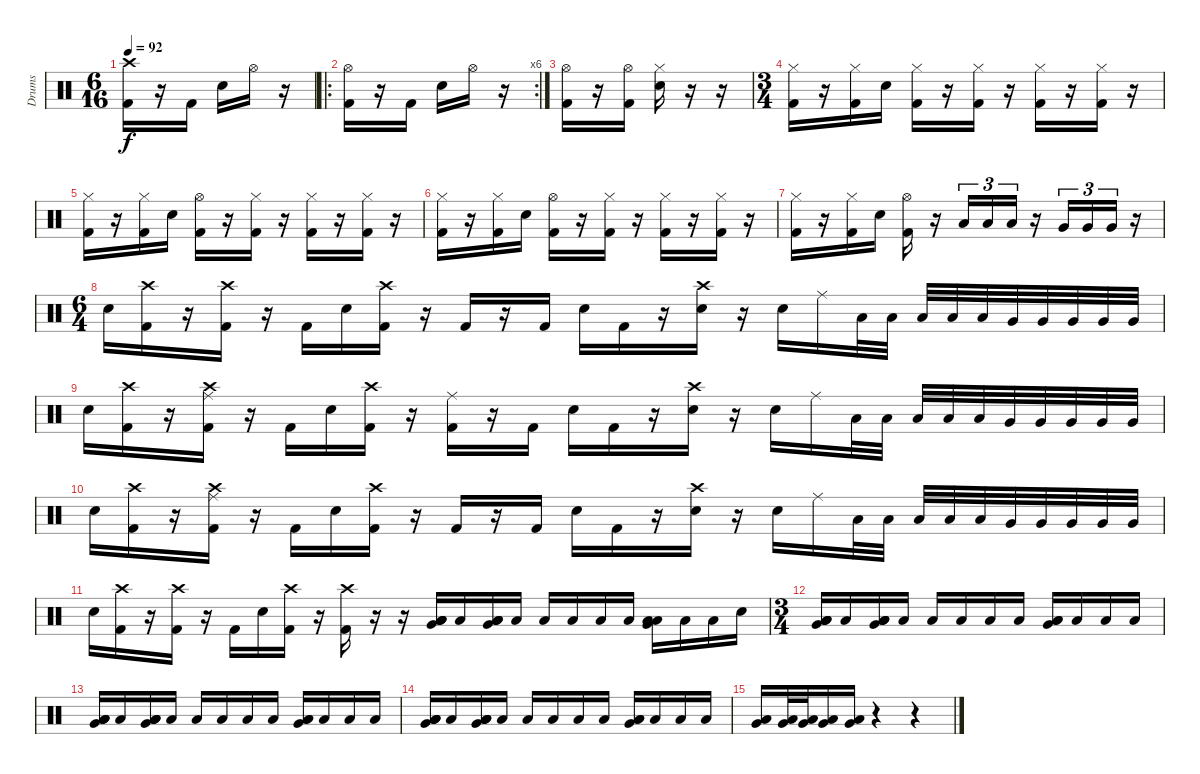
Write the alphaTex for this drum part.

\track ("Drums               " "Drums     ") {instrument percussion}
\staff {score}
\articulation defaults
\ts (6 16)
\tempo 92
\clef neutral
\ks c
("Crash high (hit)" "Kick (hit) 2").16{dy f} r.16 "Kick (hit) 2".16 "Electric Snare (hit)".16 "Hi-Hat (open)".16 r.16 |
\ro
\rc 6
("Hi-Hat (open)" "Kick (hit) 2").16 r.16 "Kick (hit) 2".16 "Electric Snare (hit)".16 "Hi-Hat (open)".16 r.16 |
("Hi-Hat (open)" "Kick (hit) 2").16 r.16 ("Hi-Hat (open)" "Kick (hit) 2").16 ("Hi-Hat (closed)" "Electric Snare (hit)").16 r.16 r.16 |
\ts (3 4)
("Hi-Hat (closed)" "Kick (hit) 2").16 r.16 ("Hi-Hat (closed)" "Kick (hit) 2").16 "Electric Snare (hit)".16 ("Hi-Hat (closed)" "Kick (hit) 2").16 r.16 ("Hi-Hat (closed)" "Kick (hit) 2").16 r.16 ("Hi-Hat (closed)" "Kick (hit) 2").16 r.16 ("Hi-Hat (closed)" "Kick (hit) 2").16 r.16 |
("Hi-Hat (closed)" "Kick (hit) 2").16 r.16 ("Hi-Hat (closed)" "Kick (hit) 2").16 "Electric Snare (hit)".16 ("Hi-Hat (open)" "Kick (hit) 2").16 r.16 ("Hi-Hat (closed)" "Kick (hit) 2").16 r.16 ("Hi-Hat (closed)" "Kick (hit) 2").16 r.16 ("Hi-Hat (closed)" "Kick (hit) 2").16 r.16 |
("Hi-Hat (closed)" "Kick (hit) 2").16 r.16 ("Hi-Hat (closed)" "Kick (hit) 2").16 "Electric Snare (hit)".16 ("Hi-Hat (open)" "Kick (hit) 2").16 r.16 ("Hi-Hat (closed)" "Kick (hit) 2").16 r.16 ("Hi-Hat (closed)" "Kick (hit) 2").16 r.16 ("Hi-Hat (closed)" "Kick (hit) 2").16 r.16 |
("Hi-Hat (closed)" "Kick (hit) 2").16 r.16 ("Hi-Hat (closed)" "Kick (hit) 2").16 "Electric Snare (hit)".16 ("Hi-Hat (open)" "Kick (hit) 2").16 r.16 "Low Tom (hit)".16{tu (3 2)} "Low Tom (hit)".16{tu (3 2)} "Low Tom (hit)".16{tu (3 2)} r.16 "Very Low Tom (hit)".16{tu (3 2)} "Very Low Tom (hit)".16{tu (3 2)} "Very Low Tom (hit)".16{tu (3 2)} r.16 |
\ts (6 4)
"Electric Snare (hit)".16 ("Crash high (hit)" "Kick (hit) 2").16 r.16 ("Crash high (hit)" "Kick (hit) 2").16 r.16 "Kick (hit) 2".16 "Electric Snare (hit)".16 ("Crash high (hit)" "Kick (hit) 2").16 r.16 "Kick (hit) 2".16 r.16 "Kick (hit) 2".16 "Electric Snare (hit)".16 "Kick (hit) 2".16 r.16 ("Crash high (hit)" "Electric Snare (hit)").16 r.16 "Electric Snare (hit)".16 "Ride (middle)".16 "Low Tom (hit)".32 "Low Tom (hit)".32 "Low Tom (hit)".32 "Low Tom (hit)".32 "Low Tom (hit)".32 "Very Low Tom (hit)".32 "Very Low Tom (hit)".32 "Very Low Tom (hit)".32 "Very Low Tom (hit)".32 "Very Low Tom (hit)".32 |
"Electric Snare (hit)".16 ("Crash high (hit)" "Kick (hit) 2").16 r.16 ("Crash high (hit)" "Ride (middle)" "Kick (hit) 2").16 r.16 "Kick (hit) 2".16 "Electric Snare (hit)".16 ("Crash high (hit)" "Kick (hit) 2").16 r.16 ("Ride (middle)" "Kick (hit) 2").16 r.16 "Kick (hit) 2".16 "Electric Snare (hit)".16 "Kick (hit) 2".16 r.16 ("Crash high (hit)" "Electric Snare (hit)").16 r.16 "Electric Snare (hit)".16 "Ride (middle)".16 "Low Tom (hit)".32 "Low Tom (hit)".32 "Low Tom (hit)".32 "Low Tom (hit)".32 "Low Tom (hit)".32 "Very Low Tom (hit)".32 "Very Low Tom (hit)".32 "Very Low Tom (hit)".32 "Very Low Tom (hit)".32 "Very Low Tom (hit)".32 |
"Electric Snare (hit)".16 ("Crash high (hit)" "Kick (hit) 2").16 r.16 ("Crash high (hit)" "Ride (middle)" "Kick (hit) 2").16 r.16 "Kick (hit) 2".16 "Electric Snare (hit)".16 ("Crash high (hit)" "Kick (hit) 2").16 r.16 "Kick (hit) 2".16 r.16 "Kick (hit) 2".16 "Electric Snare (hit)".16 "Kick (hit) 2".16 r.16 ("Crash high (hit)" "Electric Snare (hit)").16 r.16 "Electric Snare (hit)".16 "Ride (middle)".16 "Low Tom (hit)".32 "Low Tom (hit)".32 "Low Tom (hit)".32 "Low Tom (hit)".32 "Low Tom (hit)".32 "Very Low Tom (hit)".32 "Very Low Tom (hit)".32 "Very Low Tom (hit)".32 "Very Low Tom (hit)".32 "Very Low Tom (hit)".32 |
"Electric Snare (hit)".16 ("Crash high (hit)" "Kick (hit) 2").16 r.16 ("Crash high (hit)" "Kick (hit) 2").16 r.16 "Kick (hit) 2".16 "Electric Snare (hit)".16 ("Crash high (hit)" "Kick (hit) 2").16 r.16 ("Crash high (hit)" "Kick (hit) 2").16 r.16 r.16 ("Low Tom (hit)" "Very Low Tom (hit)" "Low Floor Tom (hit)" "Low Floor Tom (hit)").16 "Low Floor Tom (hit)".16 ("Low Tom (hit)" "Very Low Tom (hit)" "Low Floor Tom (hit)" "Low Floor Tom (hit)").16 "Low Floor Tom (hit)".16 "Low Floor Tom (hit)".16 "Low Floor Tom (hit)".16 "Low Floor Tom (hit)".16 "Low Floor Tom (hit)".16 ("Low Tom (hit)" "Very Low Tom (hit)" "Low Floor Tom (hit)").16 "Low Floor Tom (hit)".16 "Low Floor Tom (hit)".16 "Snare (hit)".16 |
\ts (3 4)
("Low Tom (hit)" "Very Low Tom (hit)" "Low Floor Tom (hit)" "Low Floor Tom (hit)").16 "Low Floor Tom (hit)".16 ("Low Tom (hit)" "Very Low Tom (hit)" "Low Floor Tom (hit)" "Low Floor Tom (hit)").16 "Low Floor Tom (hit)".16 "Low Floor Tom (hit)".16 "Low Floor Tom (hit)".16 "Low Floor Tom (hit)".16 "Low Floor Tom (hit)".16 ("Low Tom (hit)" "Very Low Tom (hit)" "Low Floor Tom (hit)").16 "Low Floor Tom (hit)".16 "Low Floor Tom (hit)".16 "Low Floor Tom (hit)".16 |
("Low Tom (hit)" "Very Low Tom (hit)" "Low Floor Tom (hit)" "Low Floor Tom (hit)").16 "Low Floor Tom (hit)".16 ("Low Tom (hit)" "Very Low Tom (hit)" "Low Floor Tom (hit)" "Low Floor Tom (hit)").16 "Low Floor Tom (hit)".16 "Low Floor Tom (hit)".16 "Low Floor Tom (hit)".16 "Low Floor Tom (hit)".16 "Low Floor Tom (hit)".16 ("Low Tom (hit)" "Very Low Tom (hit)" "Low Floor Tom (hit)").16 "Low Floor Tom (hit)".16 "Low Floor Tom (hit)".16 "Low Floor Tom (hit)".16 |
("Low Tom (hit)" "Very Low Tom (hit)" "Low Floor Tom (hit)" "Low Floor Tom (hit)").16 "Low Floor Tom (hit)".16 ("Low Tom (hit)" "Very Low Tom (hit)" "Low Floor Tom (hit)" "Low Floor Tom (hit)").16 "Low Floor Tom (hit)".16 "Low Floor Tom (hit)".16 "Low Floor Tom (hit)".16 "Low Floor Tom (hit)".16 "Low Floor Tom (hit)".16 ("Low Tom (hit)" "Very Low Tom (hit)" "Low Floor Tom (hit)").16 "Low Floor Tom (hit)".16 "Low Floor Tom (hit)".16 "Low Floor Tom (hit)".16 |
("Very Low Tom (hit)" "Low Floor Tom (hit)").16 ("Very Low Tom (hit)" "Low Floor Tom (hit)").32 ("Very Low Tom (hit)" "Low Floor Tom (hit)").32 ("Very Low Tom (hit)" "Low Floor Tom (hit)").16 ("Very Low Tom (hit)" "Low Floor Tom (hit)").16 r.4 r.4
